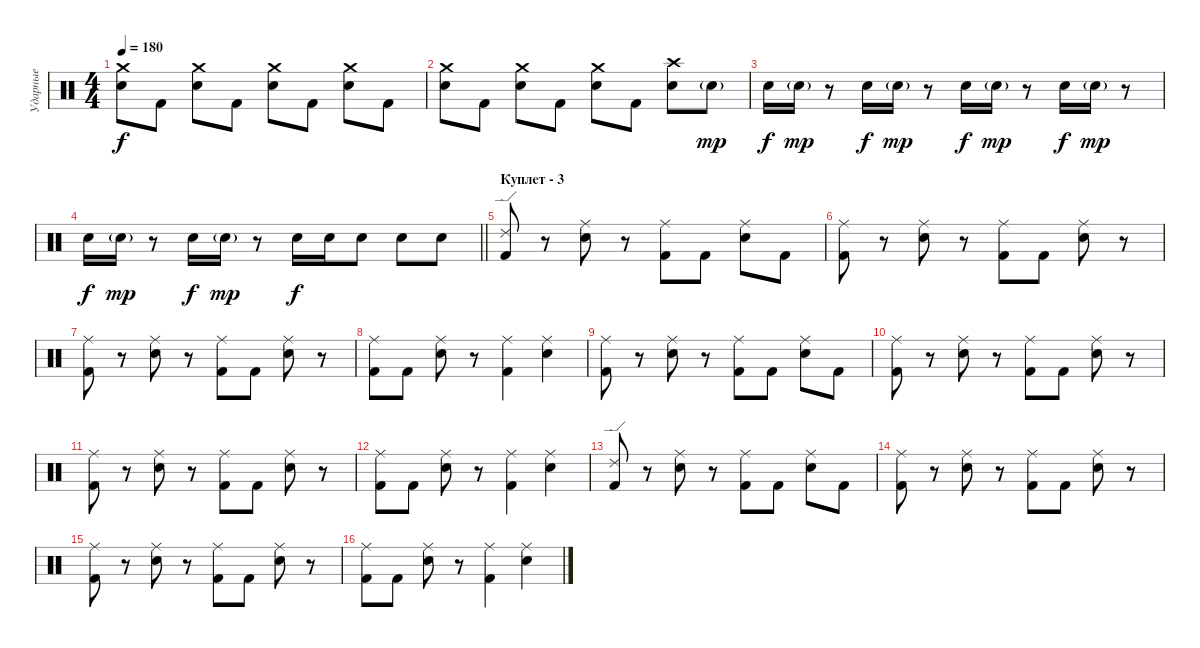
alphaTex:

\track ("Ударные" "Ударные") {instrument percussion}
\staff {score}
\articulation defaults
\ts (4 4)
\tempo 180
\clef neutral
\ks c
("Crash medium (hit)" "Snare (hit) 2").8{dy f} "Kick (hit) 2".8 ("Crash medium (hit)" "Snare (hit) 2").8 "Kick (hit) 2".8 ("Crash medium (hit)" "Snare (hit) 2").8 "Kick (hit) 2".8 ("Crash medium (hit)" "Snare (hit) 2").8 "Kick (hit) 2".8 |
("Crash medium (hit)" "Snare (hit) 2").8 "Kick (hit) 2".8 ("Crash medium (hit)" "Snare (hit) 2").8 "Kick (hit) 2".8 ("Crash medium (hit)" "Snare (hit) 2").8 "Kick (hit) 2".8 ("Crash high (hit)" "Snare (hit) 2").8 "Snare (hit) 2"{g}.8{dy mp} |
"Snare (hit) 2".16{dy f volume 7} "Snare (hit) 2"{g}.16{dy mp volume 13} r.8 "Snare (hit) 2".16{dy f} "Snare (hit) 2"{g}.16{dy mp} r.8 "Snare (hit) 2".16{dy f} "Snare (hit) 2"{g}.16{dy mp} r.8 "Snare (hit) 2".16{dy f} "Snare (hit) 2"{g}.16{dy mp} r.8 |
\barLineRight lightlight "Snare (hit) 2".16{dy f} "Snare (hit) 2"{g}.16{dy mp}
r.8 "Snare (hit) 2".16{dy f} "Snare (hit) 2"{g}.16{dy mp} r.8 "Snare (hit) 2".16{dy f} "Snare (hit) 2".16 "Snare (hit) 2".8 "Snare (hit) 2".8 "Snare (hit) 2".8 |
\section ("" "Куплет - 3")
("Ride (edge) 2" "Kick (hit) 2").8 r.8 ("Ride (middle)" "Snare (hit) 2").8 r.8 ("Ride (middle)" "Kick (hit) 2").8 "Kick (hit) 2".8 ("Ride (middle)" "Snare (hit) 2").8 "Kick (hit) 2".8 |
("Ride (middle)" "Kick (hit) 2").8 r.8 ("Ride (middle)" "Snare (hit) 2").8 r.8 ("Ride (middle)" "Kick (hit) 2").8 "Kick (hit) 2".8 ("Ride (middle)" "Snare (hit) 2").8 r.8 |
("Ride (middle)" "Kick (hit) 2").8 r.8 ("Ride (middle)" "Snare (hit) 2").8 r.8 ("Ride (middle)" "Kick (hit) 2").8 "Kick (hit) 2".8 ("Ride (middle)" "Snare (hit) 2").8 r.8 |
("Ride (middle)" "Kick (hit) 2").8 "Kick (hit) 2".8 ("Ride (middle)" "Snare (hit) 2").8 r.8 ("Ride (middle)" "Kick (hit) 2").4 ("Ride (middle)" "Snare (hit) 2").4 |
("Ride (middle)" "Kick (hit) 2").8 r.8 ("Ride (middle)" "Snare (hit) 2").8 r.8 ("Ride (middle)" "Kick (hit) 2").8 "Kick (hit) 2".8 ("Ride (middle)" "Snare (hit) 2").8 "Kick (hit) 2".8 |
("Ride (middle)" "Kick (hit) 2").8 r.8 ("Ride (middle)" "Snare (hit) 2").8 r.8 ("Ride (middle)" "Kick (hit) 2").8 "Kick (hit) 2".8 ("Ride (middle)" "Snare (hit) 2").8 r.8 |
("Ride (middle)" "Kick (hit) 2").8 r.8 ("Ride (middle)" "Snare (hit) 2").8 r.8 ("Ride (middle)" "Kick (hit) 2").8 "Kick (hit) 2".8 ("Ride (middle)" "Snare (hit) 2").8 r.8 |
("Ride (middle)" "Kick (hit) 2").8 "Kick (hit) 2".8 ("Ride (middle)" "Snare (hit) 2").8 r.8 ("Ride (middle)" "Kick (hit) 2").4 ("Ride (middle)" "Snare (hit) 2").4 |
("Ride (edge) 2" "Kick (hit) 2").8 r.8 ("Ride (middle)" "Snare (hit) 2").8 r.8 ("Ride (middle)" "Kick (hit) 2").8 "Kick (hit) 2".8 ("Ride (middle)" "Snare (hit) 2").8 "Kick (hit) 2".8 |
("Ride (middle)" "Kick (hit) 2").8 r.8 ("Ride (middle)" "Snare (hit) 2").8 r.8 ("Ride (middle)" "Kick (hit) 2").8 "Kick (hit) 2".8 ("Ride (middle)" "Snare (hit) 2").8 r.8 |
("Ride (middle)" "Kick (hit) 2").8 r.8 ("Ride (middle)" "Snare (hit) 2").8 r.8 ("Ride (middle)" "Kick (hit) 2").8 "Kick (hit) 2".8 ("Ride (middle)" "Snare (hit) 2").8 r.8 |
("Ride (middle)" "Kick (hit) 2").8 "Kick (hit) 2".8 ("Ride (middle)" "Snare (hit) 2").8 r.8 ("Ride (middle)" "Kick (hit) 2").4 ("Ride (middle)" "Snare (hit) 2").4
